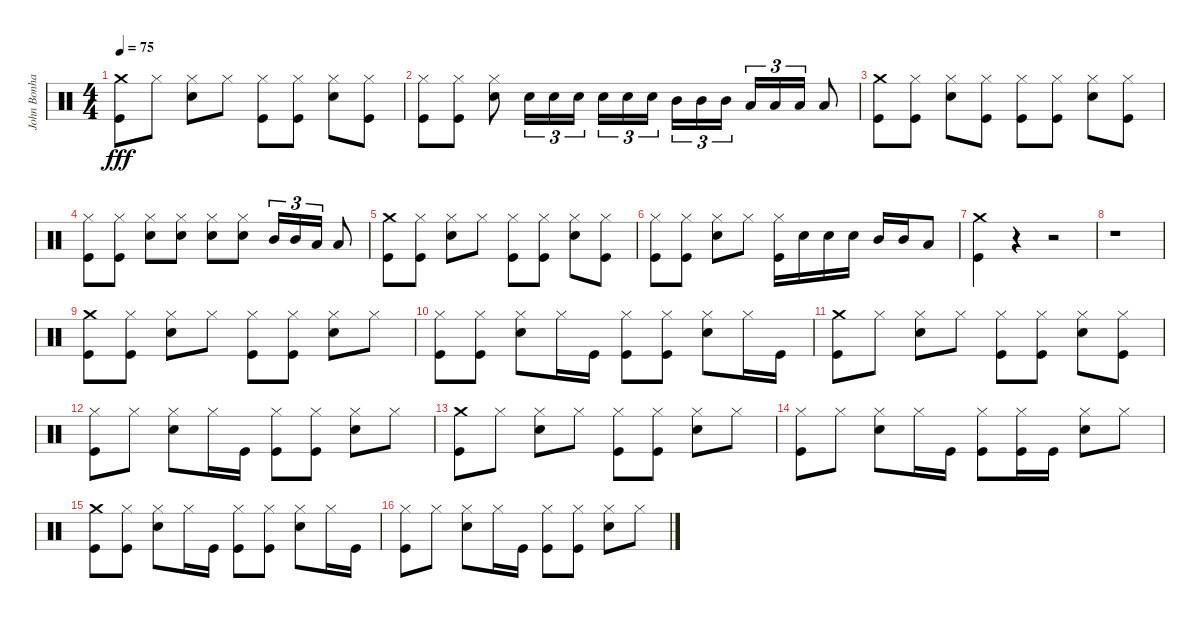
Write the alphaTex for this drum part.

\track ("John Bonham (Bateria)" "John Bonha") {instrument percussion}
\staff {score}
\articulation defaults
\ts (4 4)
\tempo 75
\clef neutral
\ks c
("Crash medium (hit)" "Kick (hit)").8{dy fff} "Hi-Hat (closed)".8 ("Hi-Hat (closed)" "Snare (hit) 2").8 "Hi-Hat (closed)".8 ("Hi-Hat (closed)" "Kick (hit)").8 ("Hi-Hat (closed)" "Kick (hit)").8 ("Hi-Hat (closed)" "Snare (hit) 2").8 ("Hi-Hat (closed)" "Kick (hit)").8 |
("Hi-Hat (closed)" "Kick (hit)").8 ("Hi-Hat (closed)" "Kick (hit)").8 ("Hi-Hat (closed)" "Snare (hit) 2").8 "Snare (hit) 2".16{tu (3 2)} "Snare (hit) 2".16{tu (3 2)} "Snare (hit) 2".16{tu (3 2)} "Snare (hit) 2".16{tu (3 2)} "Snare (hit) 2".16{tu (3 2)} "Snare (hit) 2".16{tu (3 2) beam splitsecondary} "Mid Tom (hit)".16{tu (3 2)} "Mid Tom (hit)".16{tu (3 2)} "Mid Tom (hit)".16{tu (3 2)} "Low Tom (hit)".16{tu (3 2)} "Low Tom (hit)".16{tu (3 2)} "Low Tom (hit)".16{tu (3 2)} "Low Tom (hit)".8 |
("Crash medium (hit)" "Kick (hit)").8 ("Hi-Hat (closed)" "Kick (hit)").8 ("Hi-Hat (closed)" "Snare (hit) 2").8 ("Hi-Hat (closed)" "Kick (hit)").8 ("Hi-Hat (closed)" "Kick (hit)").8 ("Hi-Hat (closed)" "Kick (hit)").8 ("Hi-Hat (closed)" "Snare (hit) 2").8 ("Hi-Hat (closed)" "Kick (hit)").8 |
("Hi-Hat (closed)" "Kick (hit)").8 ("Hi-Hat (closed)" "Kick (hit)").8 ("Hi-Hat (closed)" "Snare (hit) 2").8 ("Hi-Hat (closed)" "Snare (hit) 2").8 ("Hi-Hat (closed)" "Snare (hit) 2").8 ("Hi-Hat (closed)" "Snare (hit) 2").8 "Mid Tom (hit)".16{tu (3 2)} "Mid Tom (hit)".16{tu (3 2)} "Low Tom (hit)".16{tu (3 2)} "Low Tom (hit)".8 |
("Crash medium (hit)" "Kick (hit)").8 ("Hi-Hat (closed)" "Kick (hit)").8 ("Hi-Hat (closed)" "Snare (hit) 2").8 "Hi-Hat (closed)".8 ("Hi-Hat (closed)" "Kick (hit)").8 ("Hi-Hat (closed)" "Kick (hit)").8 ("Hi-Hat (closed)" "Snare (hit) 2").8 ("Hi-Hat (closed)" "Kick (hit)").8 |
("Hi-Hat (closed)" "Kick (hit)").8 ("Hi-Hat (closed)" "Kick (hit)").8 ("Hi-Hat (closed)" "Snare (hit) 2").8 "Hi-Hat (closed)".8 ("Hi-Hat (closed)" "Kick (hit)").16 "Snare (hit) 2".16 "Snare (hit) 2".16 "Snare (hit) 2".16 "Mid Tom (hit)".16 "Mid Tom (hit)".16 "Low Tom (hit)".8 |
("Crash medium (hit)" "Kick (hit)").4 r.4 r.2 |
r.1 |
("Crash medium (hit)" "Kick (hit)").8 ("Hi-Hat (closed)" "Kick (hit)").8 ("Hi-Hat (closed)" "Snare (hit) 2").8 "Hi-Hat (closed)".8 ("Hi-Hat (closed)" "Kick (hit)").8 ("Hi-Hat (closed)" "Kick (hit)").8 ("Hi-Hat (closed)" "Snare (hit) 2").8 "Hi-Hat (closed)".8 |
("Hi-Hat (closed)" "Kick (hit)").8 ("Hi-Hat (closed)" "Kick (hit)").8 ("Hi-Hat (closed)" "Snare (hit) 2").8 "Hi-Hat (closed)".16 "Kick (hit)".16 ("Hi-Hat (closed)" "Kick (hit)").8 ("Hi-Hat (closed)" "Kick (hit)").8 ("Hi-Hat (closed)" "Snare (hit) 2").8 "Hi-Hat (closed)".16 "Kick (hit)".16 |
("Crash medium (hit)" "Kick (hit)").8 "Hi-Hat (closed)".8 ("Hi-Hat (closed)" "Snare (hit) 2").8 "Hi-Hat (closed)".8 ("Hi-Hat (closed)" "Kick (hit)").8 ("Hi-Hat (closed)" "Kick (hit)").8 ("Hi-Hat (closed)" "Snare (hit) 2").8 ("Hi-Hat (closed)" "Kick (hit)").8 |
("Hi-Hat (closed)" "Kick (hit)").8 "Hi-Hat (closed)".8 ("Hi-Hat (closed)" "Snare (hit) 2").8 "Hi-Hat (closed)".16 "Kick (hit)".16 ("Hi-Hat (closed)" "Kick (hit)").8 ("Hi-Hat (closed)" "Kick (hit)").8 ("Hi-Hat (closed)" "Snare (hit) 2").8 "Hi-Hat (closed)".8 |
("Crash medium (hit)" "Kick (hit)").8 "Hi-Hat (closed)".8 ("Hi-Hat (closed)" "Snare (hit) 2").8 "Hi-Hat (closed)".8 ("Hi-Hat (closed)" "Kick (hit)").8 ("Hi-Hat (closed)" "Kick (hit)").8 ("Hi-Hat (closed)" "Snare (hit) 2").8 "Hi-Hat (closed)".8 |
("Hi-Hat (closed)" "Kick (hit)").8 "Hi-Hat (closed)".8 ("Hi-Hat (closed)" "Snare (hit) 2").8 "Hi-Hat (closed)".16 "Kick (hit)".16 ("Hi-Hat (closed)" "Kick (hit)").8 ("Hi-Hat (closed)" "Kick (hit)").16 "Kick (hit)".16 ("Hi-Hat (closed)" "Snare (hit) 2").8 "Hi-Hat (closed)".8 |
("Crash medium (hit)" "Kick (hit)").8 ("Hi-Hat (closed)" "Kick (hit)").8 ("Hi-Hat (closed)" "Snare (hit) 2").8 "Hi-Hat (closed)".16 "Kick (hit)".16 ("Hi-Hat (closed)" "Kick (hit)").8 ("Hi-Hat (closed)" "Kick (hit)").8 ("Hi-Hat (closed)" "Snare (hit) 2").8 "Hi-Hat (closed)".16 "Kick (hit)".16 |
("Hi-Hat (closed)" "Kick (hit)").8 "Hi-Hat (closed)".8 ("Hi-Hat (closed)" "Snare (hit) 2").8 "Hi-Hat (closed)".16 "Kick (hit)".16 ("Hi-Hat (closed)" "Kick (hit)").8 ("Hi-Hat (closed)" "Kick (hit)").8 ("Hi-Hat (closed)" "Snare (hit) 2").8 "Hi-Hat (closed)".8
